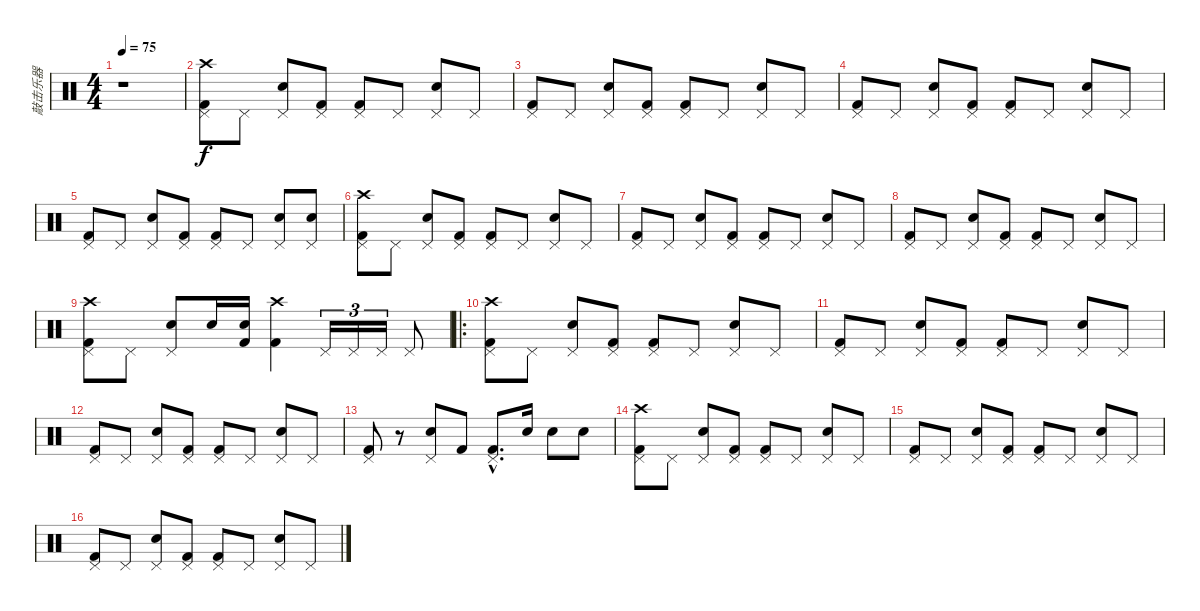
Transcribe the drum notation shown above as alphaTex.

\track ("敲击乐器" "敲击乐器") {instrument percussion}
\staff {score}
\articulation defaults
\ts (4 4)
\tempo 75
\clef neutral
\ks c
r.1{dy f} |
("Crash high (hit)" "Pedal Hi-Hat (hit)" "Kick (hit) 2").8 "Pedal Hi-Hat (hit)".8 ("Pedal Hi-Hat (hit)" "Metronome (bell)").8 ("Pedal Hi-Hat (hit)" "Kick (hit) 2").8 ("Pedal Hi-Hat (hit)" "Kick (hit) 2").8 "Pedal Hi-Hat (hit)".8 ("Pedal Hi-Hat (hit)" "Metronome (bell)").8 "Pedal Hi-Hat (hit)".8 |
("Pedal Hi-Hat (hit)" "Kick (hit) 2").8 "Pedal Hi-Hat (hit)".8 ("Pedal Hi-Hat (hit)" "Metronome (bell)").8 ("Pedal Hi-Hat (hit)" "Kick (hit) 2").8 ("Pedal Hi-Hat (hit)" "Kick (hit) 2").8 "Pedal Hi-Hat (hit)".8 ("Pedal Hi-Hat (hit)" "Metronome (bell)").8 "Pedal Hi-Hat (hit)".8 |
("Pedal Hi-Hat (hit)" "Kick (hit) 2").8 "Pedal Hi-Hat (hit)".8 ("Pedal Hi-Hat (hit)" "Metronome (bell)").8 ("Pedal Hi-Hat (hit)" "Kick (hit) 2").8 ("Pedal Hi-Hat (hit)" "Kick (hit) 2").8 "Pedal Hi-Hat (hit)".8 ("Pedal Hi-Hat (hit)" "Metronome (bell)").8 "Pedal Hi-Hat (hit)".8 |
("Pedal Hi-Hat (hit)" "Kick (hit) 2").8 "Pedal Hi-Hat (hit)".8 ("Pedal Hi-Hat (hit)" "Metronome (bell)").8 ("Pedal Hi-Hat (hit)" "Kick (hit) 2").8 ("Pedal Hi-Hat (hit)" "Kick (hit) 2").8 "Pedal Hi-Hat (hit)".8 ("Pedal Hi-Hat (hit)" "Metronome (bell)").8 ("Pedal Hi-Hat (hit)" "Metronome (bell)").8 |
("Crash high (hit)" "Pedal Hi-Hat (hit)" "Kick (hit) 2").8 "Pedal Hi-Hat (hit)".8 ("Pedal Hi-Hat (hit)" "Metronome (bell)").8 ("Pedal Hi-Hat (hit)" "Kick (hit) 2").8 ("Pedal Hi-Hat (hit)" "Kick (hit) 2").8 "Pedal Hi-Hat (hit)".8 ("Pedal Hi-Hat (hit)" "Metronome (bell)").8 "Pedal Hi-Hat (hit)".8 |
("Pedal Hi-Hat (hit)" "Kick (hit) 2").8 "Pedal Hi-Hat (hit)".8 ("Pedal Hi-Hat (hit)" "Metronome (bell)").8 ("Pedal Hi-Hat (hit)" "Kick (hit) 2").8 ("Pedal Hi-Hat (hit)" "Kick (hit) 2").8 "Pedal Hi-Hat (hit)".8 ("Pedal Hi-Hat (hit)" "Metronome (bell)").8 "Pedal Hi-Hat (hit)".8 |
("Pedal Hi-Hat (hit)" "Kick (hit) 2").8 "Pedal Hi-Hat (hit)".8 ("Pedal Hi-Hat (hit)" "Metronome (bell)").8 ("Pedal Hi-Hat (hit)" "Kick (hit) 2").8 ("Pedal Hi-Hat (hit)" "Kick (hit) 2").8 "Pedal Hi-Hat (hit)".8 ("Pedal Hi-Hat (hit)" "Metronome (bell)").8 "Pedal Hi-Hat (hit)".8 |
("Crash high (hit)" "Pedal Hi-Hat (hit)" "Kick (hit) 2").8 "Pedal Hi-Hat (hit)".8 ("Pedal Hi-Hat (hit)" "Metronome (bell)").8 "Metronome (bell)".16 ("Metronome (bell)" "Kick (hit) 2").16 ("Crash high (hit)" "Kick (hit) 2").4 "Pedal Hi-Hat (hit)".16{tu (3 2)} "Pedal Hi-Hat (hit)".16{tu (3 2)} "Pedal Hi-Hat (hit)".16{tu (3 2)} "Pedal Hi-Hat (hit)".8 |
\ro
("Crash high (hit)" "Pedal Hi-Hat (hit)" "Kick (hit) 2").8 "Pedal Hi-Hat (hit)".8 ("Pedal Hi-Hat (hit)" "Metronome (bell)").8 ("Pedal Hi-Hat (hit)" "Kick (hit) 2").8 ("Pedal Hi-Hat (hit)" "Kick (hit) 2").8 "Pedal Hi-Hat (hit)".8 ("Pedal Hi-Hat (hit)" "Metronome (bell)").8 "Pedal Hi-Hat (hit)".8 |
("Pedal Hi-Hat (hit)" "Kick (hit) 2").8 "Pedal Hi-Hat (hit)".8 ("Pedal Hi-Hat (hit)" "Metronome (bell)").8 ("Pedal Hi-Hat (hit)" "Kick (hit) 2").8 ("Pedal Hi-Hat (hit)" "Kick (hit) 2").8 "Pedal Hi-Hat (hit)".8 ("Pedal Hi-Hat (hit)" "Metronome (bell)").8 "Pedal Hi-Hat (hit)".8 |
("Pedal Hi-Hat (hit)" "Kick (hit) 2").8 "Pedal Hi-Hat (hit)".8 ("Pedal Hi-Hat (hit)" "Metronome (bell)").8 ("Pedal Hi-Hat (hit)" "Kick (hit) 2").8 ("Pedal Hi-Hat (hit)" "Kick (hit) 2").8 "Pedal Hi-Hat (hit)".8 ("Pedal Hi-Hat (hit)" "Metronome (bell)").8 "Pedal Hi-Hat (hit)".8 |
("Pedal Hi-Hat (hit)" "Kick (hit) 2").8 r.8 ("Pedal Hi-Hat (hit)" "Metronome (bell)").8 "Kick (hit) 2".8 ("Pedal Hi-Hat (hit)"{hac} "Kick (hit) 2"{hac}).8{d} "Metronome (bell)".16 "Metronome (bell)".8 "Metronome (bell)".8 |
("Crash high (hit)" "Pedal Hi-Hat (hit)" "Kick (hit) 2").8 "Pedal Hi-Hat (hit)".8 ("Pedal Hi-Hat (hit)" "Metronome (bell)").8 ("Pedal Hi-Hat (hit)" "Kick (hit) 2").8 ("Pedal Hi-Hat (hit)" "Kick (hit) 2").8 "Pedal Hi-Hat (hit)".8 ("Pedal Hi-Hat (hit)" "Metronome (bell)").8 "Pedal Hi-Hat (hit)".8 |
("Pedal Hi-Hat (hit)" "Kick (hit) 2").8 "Pedal Hi-Hat (hit)".8 ("Pedal Hi-Hat (hit)" "Metronome (bell)").8 ("Pedal Hi-Hat (hit)" "Kick (hit) 2").8 ("Pedal Hi-Hat (hit)" "Kick (hit) 2").8 "Pedal Hi-Hat (hit)".8 ("Pedal Hi-Hat (hit)" "Metronome (bell)").8 "Pedal Hi-Hat (hit)".8 |
("Pedal Hi-Hat (hit)" "Kick (hit) 2").8 "Pedal Hi-Hat (hit)".8 ("Pedal Hi-Hat (hit)" "Metronome (bell)").8 ("Pedal Hi-Hat (hit)" "Kick (hit) 2").8 ("Pedal Hi-Hat (hit)" "Kick (hit) 2").8 "Pedal Hi-Hat (hit)".8 ("Pedal Hi-Hat (hit)" "Metronome (bell)").8 "Pedal Hi-Hat (hit)".8
